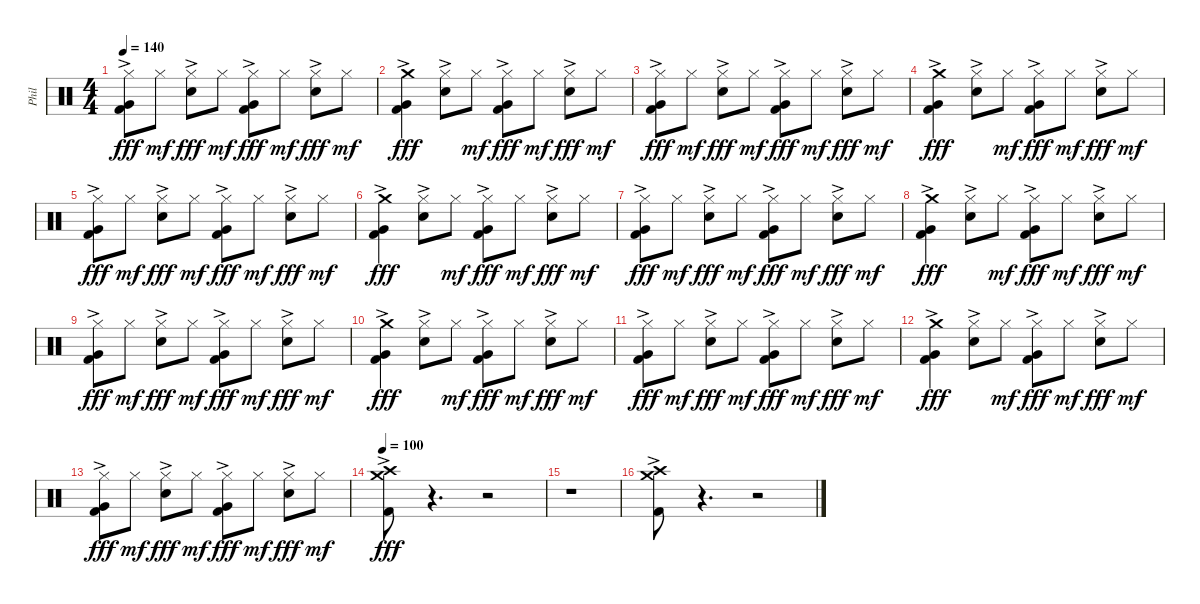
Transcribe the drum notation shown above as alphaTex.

\track ("Phil" "Phil") {instrument percussion}
\staff {score}
\articulation defaults
\ts (4 4)
\tempo 140
\clef neutral
\ks c
("Hi-Hat (closed)"{ac} "Very Low Tom (hit)"{ac} "Kick (hit) 2"{ac}).8{dy fff} "Hi-Hat (closed)".8{dy mf} ("Hi-Hat (closed)"{ac} "Snare (hit) 2").8{dy fff} "Hi-Hat (closed)".8{dy mf} ("Hi-Hat (closed)"{ac} "Very Low Tom (hit)"{ac} "Kick (hit) 2"{ac}).8{dy fff} "Hi-Hat (closed)".8{dy mf} ("Hi-Hat (closed)"{ac} "Snare (hit) 2").8{dy fff} "Hi-Hat (closed)".8{dy mf} |
("Crash medium (hit)"{ac} "Very Low Tom (hit)"{ac} "Kick (hit) 2"{ac}).4{dy fff} ("Hi-Hat (closed)"{ac} "Snare (hit) 2").8 "Hi-Hat (closed)".8{dy mf} ("Hi-Hat (closed)"{ac} "Very Low Tom (hit)"{ac} "Kick (hit) 2"{ac}).8{dy fff} "Hi-Hat (closed)".8{dy mf} ("Hi-Hat (closed)"{ac} "Snare (hit) 2").8{dy fff} "Hi-Hat (closed)".8{dy mf} |
("Hi-Hat (closed)"{ac} "Very Low Tom (hit)"{ac} "Kick (hit) 2"{ac}).8{dy fff} "Hi-Hat (closed)".8{dy mf} ("Hi-Hat (closed)"{ac} "Snare (hit) 2").8{dy fff} "Hi-Hat (closed)".8{dy mf} ("Hi-Hat (closed)"{ac} "Very Low Tom (hit)"{ac} "Kick (hit) 2"{ac}).8{dy fff} "Hi-Hat (closed)".8{dy mf} ("Hi-Hat (closed)"{ac} "Snare (hit) 2").8{dy fff} "Hi-Hat (closed)".8{dy mf} |
("Crash medium (hit)"{ac} "Very Low Tom (hit)"{ac} "Kick (hit) 2"{ac}).4{dy fff} ("Hi-Hat (closed)"{ac} "Snare (hit) 2").8 "Hi-Hat (closed)".8{dy mf} ("Hi-Hat (closed)"{ac} "Very Low Tom (hit)"{ac} "Kick (hit) 2"{ac}).8{dy fff} "Hi-Hat (closed)".8{dy mf} ("Hi-Hat (closed)"{ac} "Snare (hit) 2").8{dy fff} "Hi-Hat (closed)".8{dy mf} |
("Hi-Hat (closed)"{ac} "Very Low Tom (hit)"{ac} "Kick (hit) 2"{ac}).8{dy fff} "Hi-Hat (closed)".8{dy mf} ("Hi-Hat (closed)"{ac} "Snare (hit) 2").8{dy fff} "Hi-Hat (closed)".8{dy mf} ("Hi-Hat (closed)"{ac} "Very Low Tom (hit)"{ac} "Kick (hit) 2"{ac}).8{dy fff} "Hi-Hat (closed)".8{dy mf} ("Hi-Hat (closed)"{ac} "Snare (hit) 2").8{dy fff} "Hi-Hat (closed)".8{dy mf} |
("Crash medium (hit)"{ac} "Very Low Tom (hit)"{ac} "Kick (hit) 2"{ac}).4{dy fff} ("Hi-Hat (closed)"{ac} "Snare (hit) 2").8 "Hi-Hat (closed)".8{dy mf} ("Hi-Hat (closed)"{ac} "Very Low Tom (hit)"{ac} "Kick (hit) 2"{ac}).8{dy fff} "Hi-Hat (closed)".8{dy mf} ("Hi-Hat (closed)"{ac} "Snare (hit) 2").8{dy fff} "Hi-Hat (closed)".8{dy mf} |
("Hi-Hat (closed)"{ac} "Very Low Tom (hit)"{ac} "Kick (hit) 2"{ac}).8{dy fff} "Hi-Hat (closed)".8{dy mf} ("Hi-Hat (closed)"{ac} "Snare (hit) 2").8{dy fff} "Hi-Hat (closed)".8{dy mf} ("Hi-Hat (closed)"{ac} "Very Low Tom (hit)"{ac} "Kick (hit) 2"{ac}).8{dy fff} "Hi-Hat (closed)".8{dy mf} ("Hi-Hat (closed)"{ac} "Snare (hit) 2").8{dy fff} "Hi-Hat (closed)".8{dy mf} |
("Crash medium (hit)"{ac} "Very Low Tom (hit)"{ac} "Kick (hit) 2"{ac}).4{dy fff} ("Hi-Hat (closed)"{ac} "Snare (hit) 2").8 "Hi-Hat (closed)".8{dy mf} ("Hi-Hat (closed)"{ac} "Very Low Tom (hit)"{ac} "Kick (hit) 2"{ac}).8{dy fff} "Hi-Hat (closed)".8{dy mf} ("Hi-Hat (closed)"{ac} "Snare (hit) 2").8{dy fff} "Hi-Hat (closed)".8{dy mf} |
("Hi-Hat (closed)"{ac} "Very Low Tom (hit)"{ac} "Kick (hit) 2"{ac}).8{dy fff} "Hi-Hat (closed)".8{dy mf} ("Hi-Hat (closed)"{ac} "Snare (hit) 2").8{dy fff} "Hi-Hat (closed)".8{dy mf} ("Hi-Hat (closed)"{ac} "Very Low Tom (hit)"{ac} "Kick (hit) 2"{ac}).8{dy fff} "Hi-Hat (closed)".8{dy mf} ("Hi-Hat (closed)"{ac} "Snare (hit) 2").8{dy fff} "Hi-Hat (closed)".8{dy mf} |
("Crash medium (hit)"{ac} "Very Low Tom (hit)"{ac} "Kick (hit) 2"{ac}).4{dy fff} ("Hi-Hat (closed)"{ac} "Snare (hit) 2").8 "Hi-Hat (closed)".8{dy mf} ("Hi-Hat (closed)"{ac} "Very Low Tom (hit)"{ac} "Kick (hit) 2"{ac}).8{dy fff} "Hi-Hat (closed)".8{dy mf} ("Hi-Hat (closed)"{ac} "Snare (hit) 2").8{dy fff} "Hi-Hat (closed)".8{dy mf} |
("Hi-Hat (closed)"{ac} "Very Low Tom (hit)"{ac} "Kick (hit) 2"{ac}).8{dy fff} "Hi-Hat (closed)".8{dy mf} ("Hi-Hat (closed)"{ac} "Snare (hit) 2").8{dy fff} "Hi-Hat (closed)".8{dy mf} ("Hi-Hat (closed)"{ac} "Very Low Tom (hit)"{ac} "Kick (hit) 2"{ac}).8{dy fff} "Hi-Hat (closed)".8{dy mf} ("Hi-Hat (closed)"{ac} "Snare (hit) 2").8{dy fff} "Hi-Hat (closed)".8{dy mf} |
("Crash medium (hit)"{ac} "Very Low Tom (hit)"{ac} "Kick (hit) 2"{ac}).4{dy fff} ("Hi-Hat (closed)"{ac} "Snare (hit) 2").8 "Hi-Hat (closed)".8{dy mf} ("Hi-Hat (closed)"{ac} "Very Low Tom (hit)"{ac} "Kick (hit) 2"{ac}).8{dy fff} "Hi-Hat (closed)".8{dy mf} ("Hi-Hat (closed)"{ac} "Snare (hit) 2").8{dy fff} "Hi-Hat (closed)".8{dy mf} |
("Hi-Hat (closed)"{ac} "Very Low Tom (hit)"{ac} "Kick (hit) 2"{ac}).8{dy fff} "Hi-Hat (closed)".8{dy mf} ("Hi-Hat (closed)"{ac} "Snare (hit) 2").8{dy fff} "Hi-Hat (closed)".8{dy mf} ("Hi-Hat (closed)"{ac} "Very Low Tom (hit)"{ac} "Kick (hit) 2"{ac}).8{dy fff} "Hi-Hat (closed)".8{dy mf} ("Hi-Hat (closed)"{ac} "Snare (hit) 2").8{dy fff} "Hi-Hat (closed)".8{dy mf} |
\tempo 100
("Crash medium (hit)"{ac} "Crash high (hit)"{ac} "Kick (hit) 2"{ac}).8{dy fff} r.4{d} r.2 |
r.1 |
("Crash medium (hit)"{ac} "Crash high (hit)"{ac} "Kick (hit) 2"{ac}).8 r.4{d} r.2
